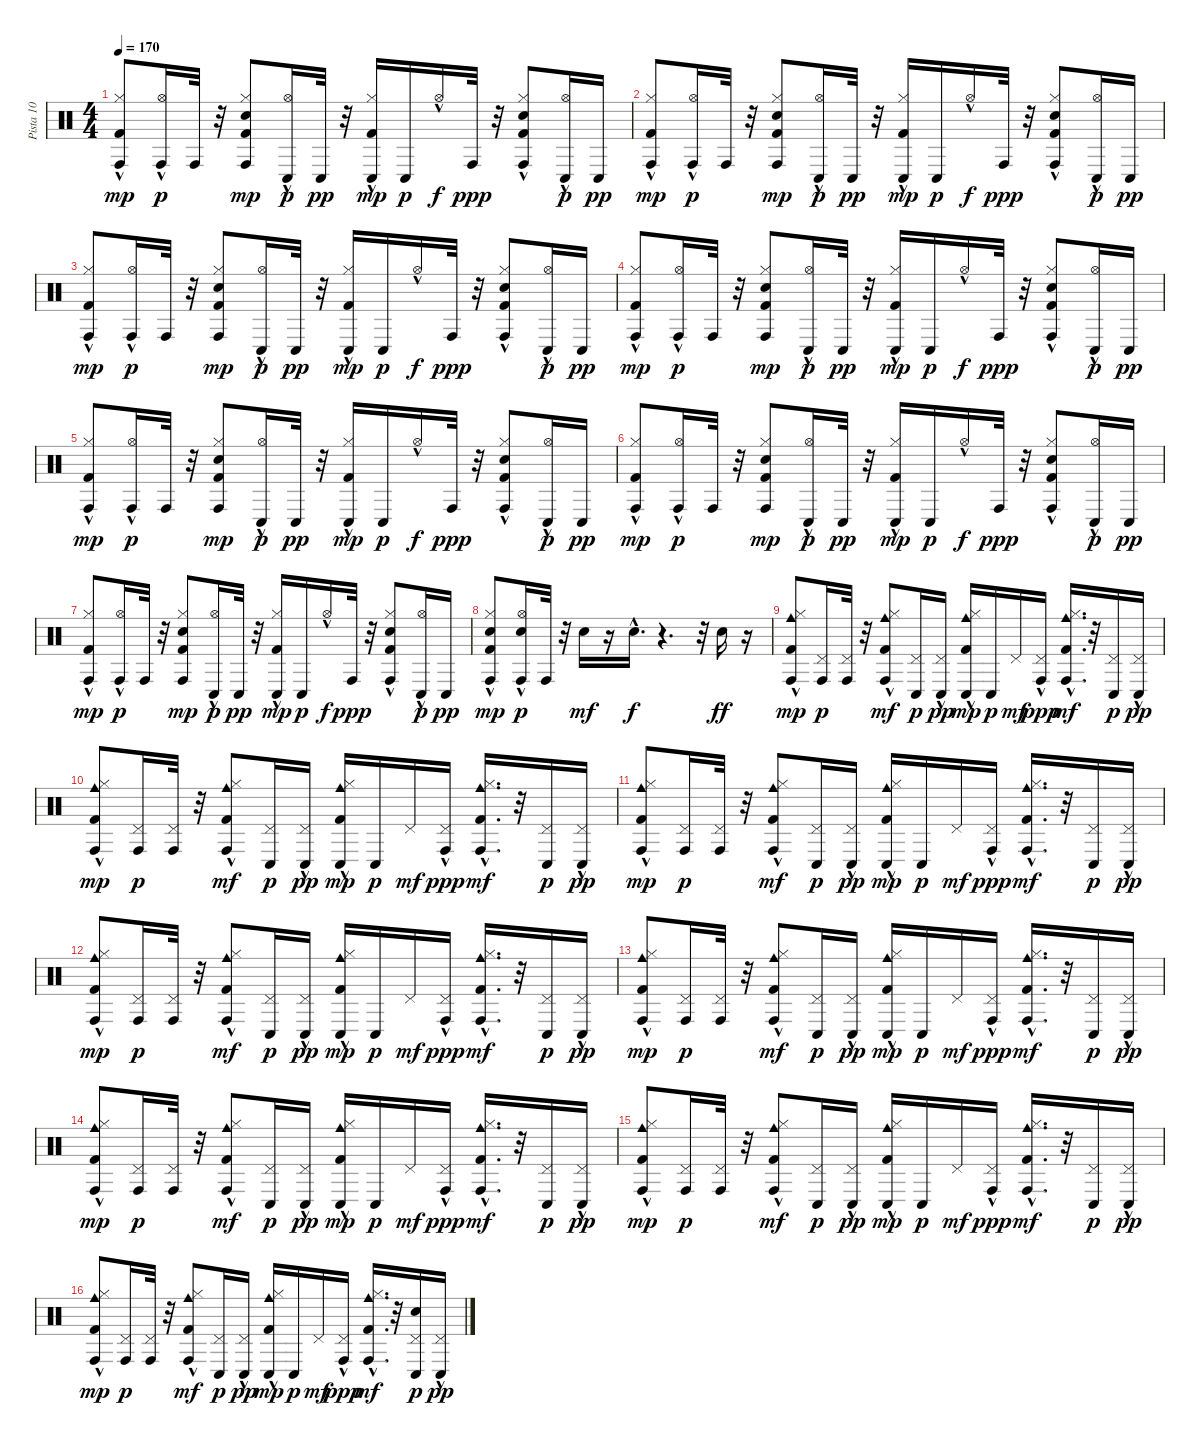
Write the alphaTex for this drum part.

\track ("Pista 10" "Pista 10") {instrument percussion}
\staff {score}
\articulation defaults
\ts (4 4)
\tempo 170
\clef neutral
\ks c
("Kick (hit) 2" "Hi-Hat (closed)"{hac} "Conga high (hit)").8{dy mp} ("Hi-Hat (open)"{hac} "Conga high (hit)").16{dy p} "Conga high (hit)".32 r.32 ("Kick (hit) 2" "Electric Snare (hit)" "Hi-Hat (closed)" "Conga high (hit)").8{dy mp} ("Hi-Hat (open)"{hac} "Conga low (hit)").16{dy p} "Conga low (hit)".32{dy pp} r.32 ("Kick (hit) 2" "Hi-Hat (closed)"{hac} "Conga low (hit)").16{dy mp} "Conga low (hit)".16{dy p} "Hi-Hat (open)"{hac}.16{dy f} "Conga high (hit)".32{dy ppp} r.32 ("Kick (hit) 2" "Electric Snare (hit)" "Hi-Hat (closed)"{hac} "Conga high (hit)").8 ("Hi-Hat (open)"{hac} "Conga low (hit)").16{dy p} "Conga low (hit)".16{dy pp} |
("Kick (hit) 2" "Hi-Hat (closed)"{hac} "Conga high (hit)").8{dy mp} ("Hi-Hat (open)"{hac} "Conga high (hit)").16{dy p} "Conga high (hit)".32 r.32 ("Kick (hit) 2" "Electric Snare (hit)" "Hi-Hat (closed)" "Conga high (hit)").8{dy mp} ("Hi-Hat (open)"{hac} "Conga low (hit)").16{dy p} "Conga low (hit)".32{dy pp} r.32 ("Kick (hit) 2" "Hi-Hat (closed)"{hac} "Conga low (hit)").16{dy mp} "Conga low (hit)".16{dy p} "Hi-Hat (open)"{hac}.16{dy f} "Conga high (hit)".32{dy ppp} r.32 ("Kick (hit) 2" "Electric Snare (hit)" "Hi-Hat (closed)"{hac} "Conga high (hit)").8 ("Hi-Hat (open)"{hac} "Conga low (hit)").16{dy p} "Conga low (hit)".16{dy pp} |
("Kick (hit) 2" "Hi-Hat (closed)"{hac} "Conga high (hit)").8{dy mp} ("Hi-Hat (open)"{hac} "Conga high (hit)").16{dy p} "Conga high (hit)".32 r.32 ("Kick (hit) 2" "Electric Snare (hit)" "Hi-Hat (closed)" "Conga high (hit)").8{dy mp} ("Hi-Hat (open)"{hac} "Conga low (hit)").16{dy p} "Conga low (hit)".32{dy pp} r.32 ("Kick (hit) 2" "Hi-Hat (closed)"{hac} "Conga low (hit)").16{dy mp} "Conga low (hit)".16{dy p} "Hi-Hat (open)"{hac}.16{dy f} "Conga high (hit)".32{dy ppp} r.32 ("Kick (hit) 2" "Electric Snare (hit)" "Hi-Hat (closed)"{hac} "Conga high (hit)").8 ("Hi-Hat (open)"{hac} "Conga low (hit)").16{dy p} "Conga low (hit)".16{dy pp} |
("Kick (hit) 2" "Hi-Hat (closed)"{hac} "Conga high (hit)").8{dy mp} ("Hi-Hat (open)"{hac} "Conga high (hit)").16{dy p} "Conga high (hit)".32 r.32 ("Kick (hit) 2" "Electric Snare (hit)" "Hi-Hat (closed)" "Conga high (hit)").8{dy mp} ("Hi-Hat (open)"{hac} "Conga low (hit)").16{dy p} "Conga low (hit)".32{dy pp} r.32 ("Kick (hit) 2" "Hi-Hat (closed)"{hac} "Conga low (hit)").16{dy mp} "Conga low (hit)".16{dy p} "Hi-Hat (open)"{hac}.16{dy f} "Conga high (hit)".32{dy ppp} r.32 ("Kick (hit) 2" "Electric Snare (hit)" "Hi-Hat (closed)"{hac} "Conga high (hit)").8 ("Hi-Hat (open)"{hac} "Conga low (hit)").16{dy p} "Conga low (hit)".16{dy pp} |
("Kick (hit) 2" "Hi-Hat (closed)"{hac} "Conga high (hit)").8{dy mp} ("Hi-Hat (open)"{hac} "Conga high (hit)").16{dy p} "Conga high (hit)".32 r.32 ("Kick (hit) 2" "Electric Snare (hit)" "Hi-Hat (closed)" "Conga high (hit)").8{dy mp} ("Hi-Hat (open)"{hac} "Conga low (hit)").16{dy p} "Conga low (hit)".32{dy pp} r.32 ("Kick (hit) 2" "Hi-Hat (closed)"{hac} "Conga low (hit)").16{dy mp} "Conga low (hit)".16{dy p} "Hi-Hat (open)"{hac}.16{dy f} "Conga high (hit)".32{dy ppp} r.32 ("Kick (hit) 2" "Electric Snare (hit)" "Hi-Hat (closed)"{hac} "Conga high (hit)").8 ("Hi-Hat (open)"{hac} "Conga low (hit)").16{dy p} "Conga low (hit)".16{dy pp} |
("Kick (hit) 2" "Hi-Hat (closed)"{hac} "Conga high (hit)").8{dy mp} ("Hi-Hat (open)"{hac} "Conga high (hit)").16{dy p} "Conga high (hit)".32 r.32 ("Kick (hit) 2" "Electric Snare (hit)" "Hi-Hat (closed)" "Conga high (hit)").8{dy mp} ("Hi-Hat (open)"{hac} "Conga low (hit)").16{dy p} "Conga low (hit)".32{dy pp} r.32 ("Kick (hit) 2" "Hi-Hat (closed)"{hac} "Conga low (hit)").16{dy mp} "Conga low (hit)".16{dy p} "Hi-Hat (open)"{hac}.16{dy f} "Conga high (hit)".32{dy ppp} r.32 ("Kick (hit) 2" "Electric Snare (hit)" "Hi-Hat (closed)"{hac} "Conga high (hit)").8 ("Hi-Hat (open)"{hac} "Conga low (hit)").16{dy p} "Conga low (hit)".16{dy pp} |
("Kick (hit) 2" "Hi-Hat (closed)"{hac} "Conga high (hit)").8{dy mp} ("Hi-Hat (open)"{hac} "Conga high (hit)").16{dy p} "Conga high (hit)".32 r.32 ("Kick (hit) 2" "Electric Snare (hit)" "Hi-Hat (closed)" "Conga high (hit)").8{dy mp} ("Hi-Hat (open)"{hac} "Conga low (hit)").16{dy p} "Conga low (hit)".32{dy pp} r.32 ("Kick (hit) 2" "Hi-Hat (closed)"{hac} "Conga low (hit)").16{dy mp} "Conga low (hit)".16{dy p} "Hi-Hat (open)"{hac}.16{dy f} "Conga high (hit)".32{dy ppp} r.32 ("Kick (hit) 2" "Electric Snare (hit)" "Hi-Hat (closed)"{hac} "Conga high (hit)").8 ("Hi-Hat (open)"{hac} "Conga low (hit)").16{dy p} "Conga low (hit)".16{dy pp} |
("Kick (hit) 2" "Hi-Hat (closed)"{hac} "Conga high (hit)" "Snare (hit) 2").8{dy mp} ("Hi-Hat (open)"{hac} "Snare (hit) 2" "Conga high (hit)").16{dy p} "Conga high (hit)".32 r.32 "Snare (hit) 2".16{dy mf} r.16 "Snare (hit) 2"{hac}.16{d dy f} r.4{d} r.32 "Snare (hit) 2".16{dy ff} r.16 |
("Kick (hit) 2" "Hi-Hat (closed)"{hac} "Conga high (hit)" "Cowbell medium (hit)"{hac}).8{dy mp} ("Pedal Hi-Hat (hit)" "Conga high (hit)").16{dy p} ("Pedal Hi-Hat (hit)" "Conga high (hit)").32 r.32 ("Kick (hit) 2" "Hi-Hat (closed)" "Conga high (hit)" "Cowbell medium (hit)"{hac}).8{dy mf} ("Pedal Hi-Hat (hit)" "Conga low (hit)").16{dy p} ("Pedal Hi-Hat (hit)"{hac} "Conga low (hit)").16{dy pp} ("Kick (hit) 2" "Hi-Hat (closed)"{hac} "Conga low (hit)" "Cowbell medium (hit)"{hac}).16{dy mp} "Conga low (hit)".16{dy p} "Pedal Hi-Hat (hit)".16{dy mf} ("Pedal Hi-Hat (hit)"{hac} "Conga high (hit)").16{dy ppp} ("Kick (hit) 2" "Hi-Hat (closed)"{hac} "Conga high (hit)" "Cowbell medium (hit)"{hac}).16{d dy mf} r.32 ("Pedal Hi-Hat (hit)" "Conga low (hit)").16{dy p} ("Pedal Hi-Hat (hit)"{hac} "Conga low (hit)").16{dy pp} |
("Kick (hit) 2" "Hi-Hat (closed)"{hac} "Conga high (hit)" "Cowbell medium (hit)"{hac}).8{dy mp} ("Pedal Hi-Hat (hit)" "Conga high (hit)").16{dy p} ("Pedal Hi-Hat (hit)" "Conga high (hit)").32 r.32 ("Kick (hit) 2" "Hi-Hat (closed)" "Conga high (hit)" "Cowbell medium (hit)"{hac}).8{dy mf} ("Pedal Hi-Hat (hit)" "Conga low (hit)").16{dy p} ("Pedal Hi-Hat (hit)"{hac} "Conga low (hit)").16{dy pp} ("Kick (hit) 2" "Hi-Hat (closed)"{hac} "Conga low (hit)" "Cowbell medium (hit)"{hac}).16{dy mp} "Conga low (hit)".16{dy p} "Pedal Hi-Hat (hit)".16{dy mf} ("Pedal Hi-Hat (hit)"{hac} "Conga high (hit)").16{dy ppp} ("Kick (hit) 2" "Hi-Hat (closed)"{hac} "Conga high (hit)" "Cowbell medium (hit)"{hac}).16{d dy mf} r.32 ("Pedal Hi-Hat (hit)" "Conga low (hit)").16{dy p} ("Pedal Hi-Hat (hit)"{hac} "Conga low (hit)").16{dy pp} |
("Kick (hit) 2" "Hi-Hat (closed)"{hac} "Conga high (hit)" "Cowbell medium (hit)"{hac}).8{dy mp} ("Pedal Hi-Hat (hit)" "Conga high (hit)").16{dy p} ("Pedal Hi-Hat (hit)" "Conga high (hit)").32 r.32 ("Kick (hit) 2" "Hi-Hat (closed)" "Conga high (hit)" "Cowbell medium (hit)"{hac}).8{dy mf} ("Pedal Hi-Hat (hit)" "Conga low (hit)").16{dy p} ("Pedal Hi-Hat (hit)"{hac} "Conga low (hit)").16{dy pp} ("Kick (hit) 2" "Hi-Hat (closed)"{hac} "Conga low (hit)" "Cowbell medium (hit)"{hac}).16{dy mp} "Conga low (hit)".16{dy p} "Pedal Hi-Hat (hit)".16{dy mf} ("Pedal Hi-Hat (hit)"{hac} "Conga high (hit)").16{dy ppp} ("Kick (hit) 2" "Hi-Hat (closed)"{hac} "Conga high (hit)" "Cowbell medium (hit)"{hac}).16{d dy mf} r.32 ("Pedal Hi-Hat (hit)" "Conga low (hit)").16{dy p} ("Pedal Hi-Hat (hit)"{hac} "Conga low (hit)").16{dy pp} |
("Kick (hit) 2" "Hi-Hat (closed)"{hac} "Conga high (hit)" "Cowbell medium (hit)"{hac}).8{dy mp} ("Pedal Hi-Hat (hit)" "Conga high (hit)").16{dy p} ("Pedal Hi-Hat (hit)" "Conga high (hit)").32 r.32 ("Kick (hit) 2" "Hi-Hat (closed)" "Conga high (hit)" "Cowbell medium (hit)"{hac}).8{dy mf} ("Pedal Hi-Hat (hit)" "Conga low (hit)").16{dy p} ("Pedal Hi-Hat (hit)"{hac} "Conga low (hit)").16{dy pp} ("Kick (hit) 2" "Hi-Hat (closed)"{hac} "Conga low (hit)" "Cowbell medium (hit)"{hac}).16{dy mp} "Conga low (hit)".16{dy p} "Pedal Hi-Hat (hit)".16{dy mf} ("Pedal Hi-Hat (hit)"{hac} "Conga high (hit)").16{dy ppp} ("Kick (hit) 2" "Hi-Hat (closed)"{hac} "Conga high (hit)" "Cowbell medium (hit)"{hac}).16{d dy mf} r.32 ("Pedal Hi-Hat (hit)" "Conga low (hit)").16{dy p} ("Pedal Hi-Hat (hit)"{hac} "Conga low (hit)").16{dy pp} |
("Kick (hit) 2" "Hi-Hat (closed)"{hac} "Conga high (hit)" "Cowbell medium (hit)"{hac}).8{dy mp} ("Pedal Hi-Hat (hit)" "Conga high (hit)").16{dy p} ("Pedal Hi-Hat (hit)" "Conga high (hit)").32 r.32 ("Kick (hit) 2" "Hi-Hat (closed)" "Conga high (hit)" "Cowbell medium (hit)"{hac}).8{dy mf} ("Pedal Hi-Hat (hit)" "Conga low (hit)").16{dy p} ("Pedal Hi-Hat (hit)"{hac} "Conga low (hit)").16{dy pp} ("Kick (hit) 2" "Hi-Hat (closed)"{hac} "Conga low (hit)" "Cowbell medium (hit)"{hac}).16{dy mp} "Conga low (hit)".16{dy p} "Pedal Hi-Hat (hit)".16{dy mf} ("Pedal Hi-Hat (hit)"{hac} "Conga high (hit)").16{dy ppp} ("Kick (hit) 2" "Hi-Hat (closed)"{hac} "Conga high (hit)" "Cowbell medium (hit)"{hac}).16{d dy mf} r.32 ("Pedal Hi-Hat (hit)" "Conga low (hit)").16{dy p} ("Pedal Hi-Hat (hit)"{hac} "Conga low (hit)").16{dy pp} |
("Kick (hit) 2" "Hi-Hat (closed)"{hac} "Conga high (hit)" "Cowbell medium (hit)"{hac}).8{dy mp} ("Pedal Hi-Hat (hit)" "Conga high (hit)").16{dy p} ("Pedal Hi-Hat (hit)" "Conga high (hit)").32 r.32 ("Kick (hit) 2" "Hi-Hat (closed)" "Conga high (hit)" "Cowbell medium (hit)"{hac}).8{dy mf} ("Pedal Hi-Hat (hit)" "Conga low (hit)").16{dy p} ("Pedal Hi-Hat (hit)"{hac} "Conga low (hit)").16{dy pp} ("Kick (hit) 2" "Hi-Hat (closed)"{hac} "Conga low (hit)" "Cowbell medium (hit)"{hac}).16{dy mp} "Conga low (hit)".16{dy p} "Pedal Hi-Hat (hit)".16{dy mf} ("Pedal Hi-Hat (hit)"{hac} "Conga high (hit)").16{dy ppp} ("Kick (hit) 2" "Hi-Hat (closed)"{hac} "Conga high (hit)" "Cowbell medium (hit)"{hac}).16{d dy mf} r.32 ("Pedal Hi-Hat (hit)" "Conga low (hit)").16{dy p} ("Pedal Hi-Hat (hit)"{hac} "Conga low (hit)").16{dy pp} |
("Kick (hit) 2" "Hi-Hat (closed)"{hac} "Conga high (hit)" "Cowbell medium (hit)"{hac}).8{dy mp} ("Pedal Hi-Hat (hit)" "Conga high (hit)").16{dy p} ("Pedal Hi-Hat (hit)" "Conga high (hit)").32 r.32 ("Kick (hit) 2" "Hi-Hat (closed)" "Conga high (hit)" "Cowbell medium (hit)"{hac}).8{dy mf} ("Pedal Hi-Hat (hit)" "Conga low (hit)").16{dy p} ("Pedal Hi-Hat (hit)"{hac} "Conga low (hit)").16{dy pp} ("Kick (hit) 2" "Hi-Hat (closed)"{hac} "Conga low (hit)" "Cowbell medium (hit)"{hac}).16{dy mp} "Conga low (hit)".16{dy p} "Pedal Hi-Hat (hit)".16{dy mf} ("Pedal Hi-Hat (hit)"{hac} "Conga high (hit)").16{dy ppp} ("Kick (hit) 2" "Hi-Hat (closed)"{hac} "Conga high (hit)" "Cowbell medium (hit)"{hac}).16{d dy mf} r.32 ("Pedal Hi-Hat (hit)" "Conga low (hit)").16{dy p} ("Pedal Hi-Hat (hit)"{hac} "Conga low (hit)").16{dy pp} |
("Kick (hit) 2" "Hi-Hat (closed)"{hac} "Conga high (hit)" "Cowbell medium (hit)"{hac}).8{dy mp} ("Pedal Hi-Hat (hit)" "Conga high (hit)").16{dy p} ("Pedal Hi-Hat (hit)" "Conga high (hit)").32 r.32 ("Kick (hit) 2" "Hi-Hat (closed)" "Conga high (hit)" "Cowbell medium (hit)"{hac}).8{dy mf} ("Pedal Hi-Hat (hit)" "Conga low (hit)").16{dy p} ("Pedal Hi-Hat (hit)"{hac} "Conga low (hit)").16{dy pp} ("Kick (hit) 2" "Hi-Hat (closed)"{hac} "Conga low (hit)" "Cowbell medium (hit)"{hac}).16{dy mp} "Conga low (hit)".16{dy p} "Pedal Hi-Hat (hit)".16{dy mf} ("Pedal Hi-Hat (hit)"{hac} "Conga high (hit)").16{dy ppp} ("Kick (hit) 2" "Hi-Hat (closed)"{hac} "Conga high (hit)" "Cowbell medium (hit)"{hac}).16{d dy mf} r.32 ("Pedal Hi-Hat (hit)" "Snare (hit) 2" "Conga low (hit)").16{dy p} ("Pedal Hi-Hat (hit)"{hac} "Conga low (hit)").16{dy pp}
